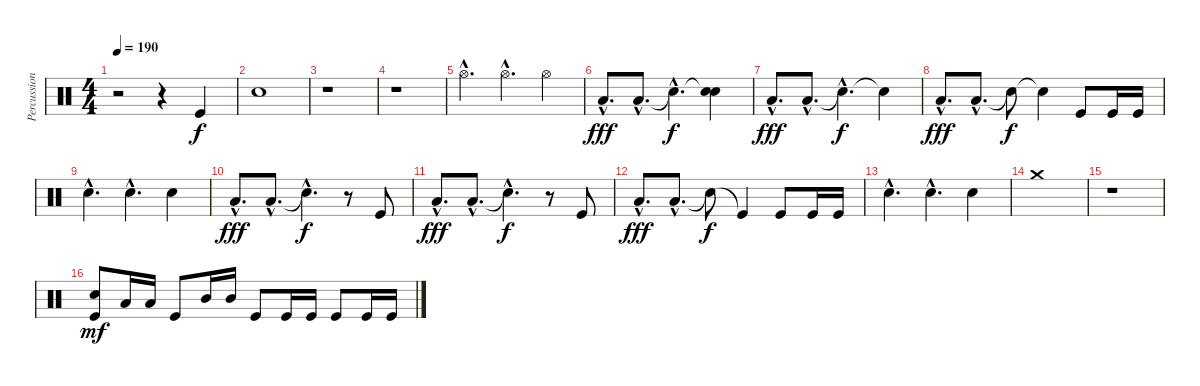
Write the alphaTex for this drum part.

\track ("Percussion" "Percussion") {instrument percussion}
\staff {score}
\articulation defaults
\ts (4 4)
\tempo 190
\clef neutral
\ks c
r.2{dy mf} r.4 "Kick (hit)".4{dy f} |
"Snare (hit) 2".1 |
r.1 |
r.1 |
"Hi-Hat (open)"{hac}.4{d} "Hi-Hat (open)"{hac}.4{d} "Hi-Hat (open)".4 |
"Low Tom (hit)"{hac}.8{d dy fff} "Low Tom (hit)"{hac}.8{d} "Snare (hit)"{hac t}.4{d dy f} ("Snare (hit)"{t} "Snare (hit)").4 |
"Low Tom (hit)"{hac}.8{d dy fff} "Low Tom (hit)"{hac}.8{d} "Snare (hit)"{hac t}.4{d dy f} "Snare (hit)"{t}.4 |
"Low Tom (hit)"{hac}.8{d dy fff} "Low Tom (hit)"{hac}.8{d} "Snare (hit)"{t}.8{dy f} "Snare (hit)"{t}.4 "Kick (hit)".8 "Kick (hit)".16 "Kick (hit)".16 |
"Snare (hit) 2"{hac}.4{d} "Snare (hit) 2"{hac}.4{d} "Snare (hit) 2".4 |
"Low Tom (hit)"{hac}.8{d dy fff} "Low Tom (hit)"{hac}.8{d} "Snare (hit)"{hac t}.4{d dy f} r.8 "Kick (hit)".8 |
"Low Tom (hit)"{hac}.8{d dy fff} "Low Tom (hit)"{hac}.8{d} "Snare (hit)"{hac t}.4{d dy f} r.8 "Kick (hit)".8 |
"Low Tom (hit)"{hac}.8{d dy fff} "Low Tom (hit)"{hac}.8{d} "Snare (hit)"{t}.8{dy f} "Kick (hit)"{t}.4 "Kick (hit)".8 "Kick (hit)".16 "Kick (hit)".16 |
"Electric Snare (hit)"{hac}.4{d} "Electric Snare (hit)"{hac}.4{d} "Electric Snare (hit)".4 |
"Crash medium (hit)".1 |
r.1 |
("Electric Snare (hit)" "Kick (hit)").8{dy mf} "Low Tom (hit)".16 "Low Tom (hit)".16 "Kick (hit)".8 "Mid Tom (hit)".16 "Mid Tom (hit)".16 "Kick (hit)".8 "Kick (hit)".16 "Kick (hit)".16 "Kick (hit)".8 "Kick (hit)".16 "Kick (hit)".16
